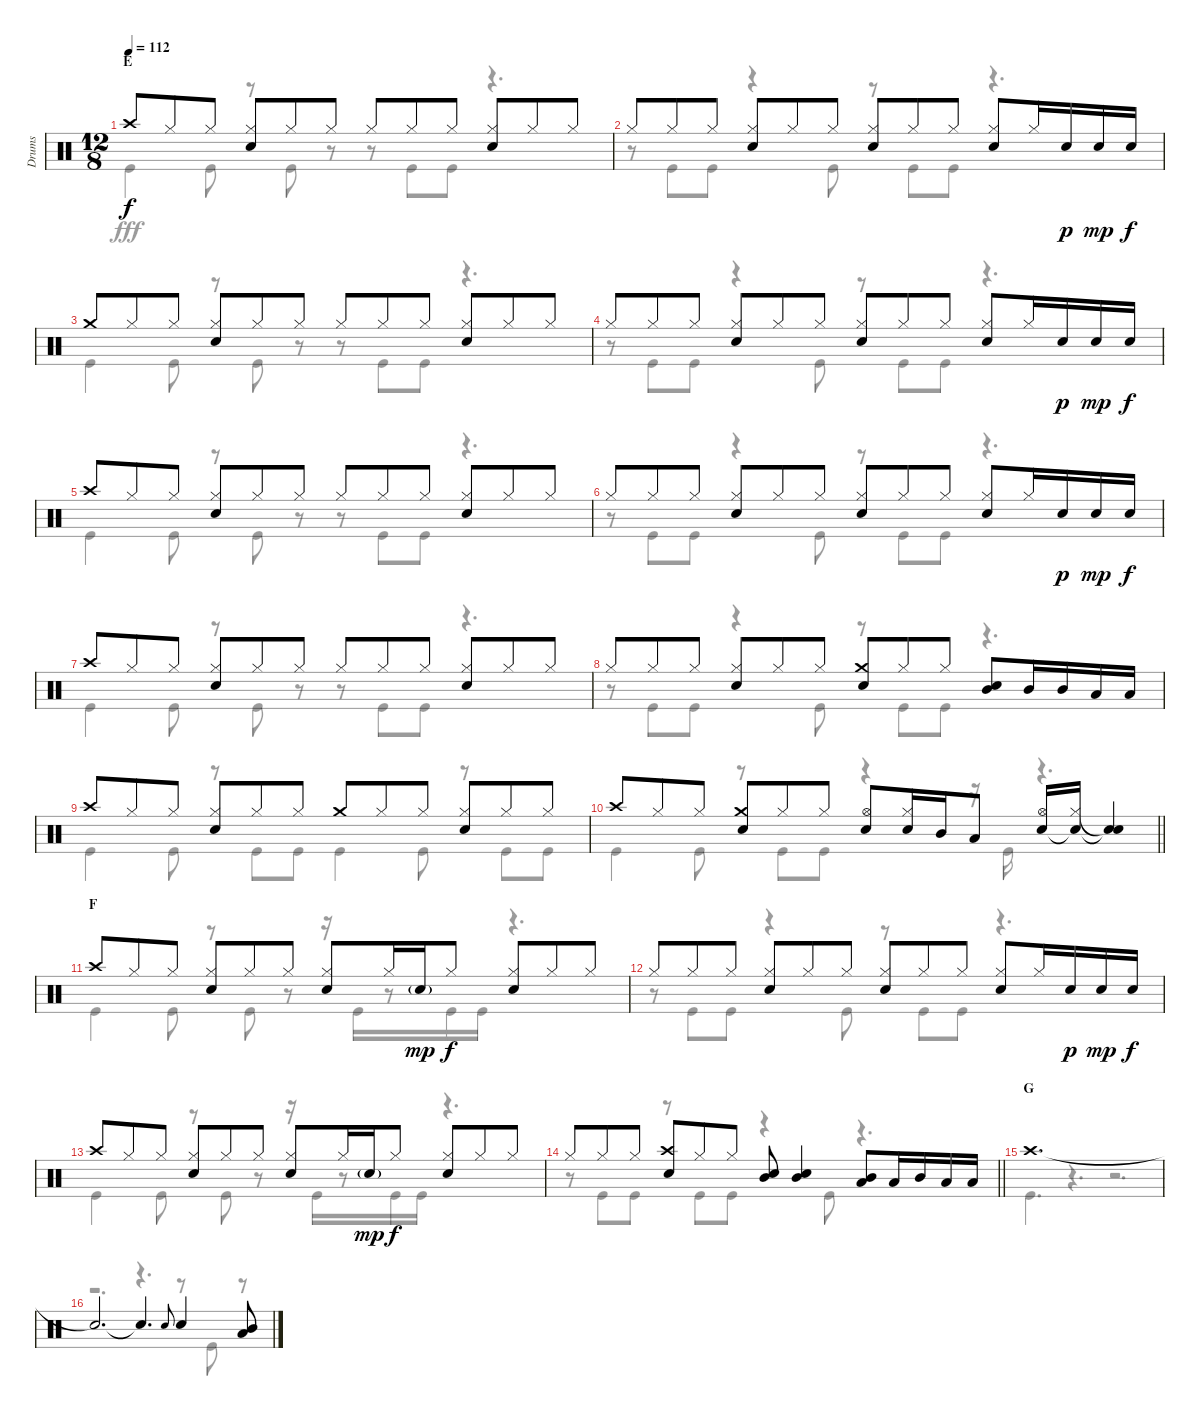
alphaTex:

\track ("Drums" "Drums") {instrument percussion}
\staff {score}
\articulation defaults
\voice
\ts (12 8)
\section ("" "E")
\tempo 112
\clef neutral
\ks c "Crash high (hit)".8{dy f} "Hi-Hat (closed)".8 "Hi-Hat (closed)".8
("Hi-Hat (closed)" "Snare (hit) 2").8 "Hi-Hat (closed)".8 "Hi-Hat (closed)".8 "Hi-Hat (closed)".8 "Hi-Hat (closed)".8 "Hi-Hat (closed)".8 ("Hi-Hat (closed)" "Snare (hit) 2").8 "Hi-Hat (closed)".8 "Hi-Hat (closed)".8 |
"Hi-Hat (closed)".8 "Hi-Hat (closed)".8 "Hi-Hat (closed)".8 ("Hi-Hat (closed)" "Snare (hit) 2").8 "Hi-Hat (closed)".8 "Hi-Hat (closed)".8 ("Hi-Hat (closed)" "Snare (hit) 2").8 "Hi-Hat (closed)".8 "Hi-Hat (closed)".8 ("Hi-Hat (closed)" "Snare (hit) 2").8 "Hi-Hat (closed)".16 "Snare (hit) 2".16{dy p} "Snare (hit) 2".16{dy mp} "Snare (hit) 2".16{dy f} |
"Crash medium (hit)".8 "Hi-Hat (closed)".8 "Hi-Hat (closed)".8 ("Hi-Hat (closed)" "Snare (hit) 2").8 "Hi-Hat (closed)".8 "Hi-Hat (closed)".8 "Hi-Hat (closed)".8 "Hi-Hat (closed)".8 "Hi-Hat (closed)".8 ("Hi-Hat (closed)" "Snare (hit) 2").8 "Hi-Hat (closed)".8 "Hi-Hat (closed)".8 |
"Hi-Hat (closed)".8 "Hi-Hat (closed)".8 "Hi-Hat (closed)".8 ("Hi-Hat (closed)" "Snare (hit) 2").8 "Hi-Hat (closed)".8 "Hi-Hat (closed)".8 ("Hi-Hat (closed)" "Snare (hit) 2").8 "Hi-Hat (closed)".8 "Hi-Hat (closed)".8 ("Hi-Hat (closed)" "Snare (hit) 2").8 "Hi-Hat (closed)".16 "Snare (hit) 2".16{dy p} "Snare (hit) 2".16{dy mp} "Snare (hit) 2".16{dy f} |
"Crash high (hit)".8 "Hi-Hat (closed)".8 "Hi-Hat (closed)".8 ("Hi-Hat (closed)" "Snare (hit) 2").8 "Hi-Hat (closed)".8 "Hi-Hat (closed)".8 "Hi-Hat (closed)".8 "Hi-Hat (closed)".8 "Hi-Hat (closed)".8 ("Hi-Hat (closed)" "Snare (hit) 2").8 "Hi-Hat (closed)".8 "Hi-Hat (closed)".8 |
"Hi-Hat (closed)".8 "Hi-Hat (closed)".8 "Hi-Hat (closed)".8 ("Hi-Hat (closed)" "Snare (hit) 2").8 "Hi-Hat (closed)".8 "Hi-Hat (closed)".8 ("Hi-Hat (closed)" "Snare (hit) 2").8 "Hi-Hat (closed)".8 "Hi-Hat (closed)".8 ("Hi-Hat (closed)" "Snare (hit) 2").8 "Hi-Hat (closed)".16 "Snare (hit) 2".16{dy p} "Snare (hit) 2".16{dy mp} "Snare (hit) 2".16{dy f} |
"Crash high (hit)".8 "Hi-Hat (closed)".8 "Hi-Hat (closed)".8 ("Hi-Hat (closed)" "Snare (hit) 2").8 "Hi-Hat (closed)".8 "Hi-Hat (closed)".8 "Hi-Hat (closed)".8 "Hi-Hat (closed)".8 "Hi-Hat (closed)".8 ("Hi-Hat (closed)" "Snare (hit) 2").8 "Hi-Hat (closed)".8 "Hi-Hat (closed)".8 |
"Hi-Hat (closed)".8 "Hi-Hat (closed)".8 "Hi-Hat (closed)".8 ("Hi-Hat (closed)" "Snare (hit) 2").8 "Hi-Hat (closed)".8 "Hi-Hat (closed)".8 ("Crash medium (hit)" "Snare (hit) 2").8 "Hi-Hat (closed)".8 "Hi-Hat (closed)".8 ("Mid Tom (hit)" "Snare (hit) 2").8 "Mid Tom (hit)".16 "Mid Tom (hit)".16 "Low Tom (hit)".16 "Low Tom (hit)".16 |
"Crash high (hit)".8 "Hi-Hat (closed)".8 "Hi-Hat (closed)".8 ("Hi-Hat (closed)" "Snare (hit) 2").8 "Hi-Hat (closed)".8 "Hi-Hat (closed)".8 "Crash medium (hit)".8 "Hi-Hat (closed)".8 "Hi-Hat (closed)".8 ("Hi-Hat (closed)" "Snare (hit) 2").8 "Hi-Hat (closed)".8 "Hi-Hat (closed)".8 |
\barLineRight lightlight "Crash high (hit)".8 "Hi-Hat (closed)".8 "Hi-Hat (closed)".8
("Crash medium (hit)" "Snare (hit) 2").8 "Hi-Hat (closed)".8 "Hi-Hat (closed)".8 ("Hi-Hat (open)" "Snare (hit) 2").8 ("Hi-Hat (closed)" "Snare (hit) 2").16 "Mid Tom (hit)".16 "Low Tom (hit)".8 ("Hi-Hat (open)" "Snare (hit) 2").16 ("Hi-Hat (closed)" "Snare (hit)"{t}).16 ("Snare (hit)"{t} "Snare (hit)"{t}).4 |
\section ("" "F")
"Crash high (hit)".8 "Hi-Hat (closed)".8 "Hi-Hat (closed)".8 ("Hi-Hat (closed)" "Snare (hit) 2").8 "Hi-Hat (closed)".8 "Hi-Hat (closed)".8 ("Hi-Hat (closed)" "Snare (hit) 2").8 "Hi-Hat (closed)".16 "Snare (hit) 2"{g}.16{dy mp} "Hi-Hat (closed)".8{dy f} ("Hi-Hat (closed)" "Snare (hit) 2").8 "Hi-Hat (closed)".8 "Hi-Hat (closed)".8 |
"Hi-Hat (closed)".8 "Hi-Hat (closed)".8 "Hi-Hat (closed)".8 ("Hi-Hat (closed)" "Snare (hit) 2").8 "Hi-Hat (closed)".8 "Hi-Hat (closed)".8 ("Hi-Hat (closed)" "Snare (hit) 2").8 "Hi-Hat (closed)".8 "Hi-Hat (closed)".8 ("Hi-Hat (closed)" "Snare (hit) 2").8 "Hi-Hat (closed)".16 "Snare (hit) 2".16{dy p} "Snare (hit) 2".16{dy mp} "Snare (hit) 2".16{dy f} |
"Crash high (hit)".8 "Hi-Hat (closed)".8 "Hi-Hat (closed)".8 ("Hi-Hat (closed)" "Snare (hit) 2").8 "Hi-Hat (closed)".8 "Hi-Hat (closed)".8 ("Hi-Hat (closed)" "Snare (hit) 2").8 "Hi-Hat (closed)".16 "Snare (hit) 2"{g}.16{dy mp} "Hi-Hat (closed)".8{dy f} ("Hi-Hat (closed)" "Snare (hit) 2").8 "Hi-Hat (closed)".8 "Hi-Hat (closed)".8 |
\barLineRight lightlight "Hi-Hat (closed)".8 "Hi-Hat (closed)".8 "Hi-Hat (closed)".8
("Crash high (hit)" "Snare (hit) 2").8 "Hi-Hat (closed)".8 "Hi-Hat (closed)".8 ("Mid Tom (hit)" "Snare (hit) 2").8 ("Mid Tom (hit)" "Snare (hit) 2").4 ("Mid Tom (hit)" "Low Tom (hit)").8 "Low Tom (hit)".16 "Mid Tom (hit)".16 "Low Tom (hit)".16 "Low Tom (hit)".16 |
\section ("" "G")
"Crash high (hit)".1{d} |
"Snare (hit)"{t}.2{d} "Snare (hit)"{t}.4{d} "Snare (hit) 2".8{gr onbeat} "Snare (hit) 2".4 ("Mid Tom (hit)" "Low Tom (hit)").8
\voice
\clef neutral
\ottava regular
\simile none
\ks c "Kick (hit)".4{dy fff} "Kick (hit)".8
r.8 "Kick (hit)".8 r.8 r.8 "Kick (hit)".8 "Kick (hit)".8 r.4{d} |
r.8 "Kick (hit)".8 "Kick (hit)".8 r.4 "Kick (hit)".8 r.8 "Kick (hit)".8 "Kick (hit)".8 r.4{d} |
"Kick (hit)".4 "Kick (hit)".8 r.8 "Kick (hit)".8 r.8 r.8 "Kick (hit)".8 "Kick (hit)".8 r.4{d} |
r.8 "Kick (hit)".8 "Kick (hit)".8 r.4 "Kick (hit)".8 r.8 "Kick (hit)".8 "Kick (hit)".8 r.4{d} |
"Kick (hit)".4 "Kick (hit)".8 r.8 "Kick (hit)".8 r.8 r.8 "Kick (hit)".8 "Kick (hit)".8 r.4{d} |
r.8 "Kick (hit)".8 "Kick (hit)".8 r.4 "Kick (hit)".8 r.8 "Kick (hit)".8 "Kick (hit)".8 r.4{d} |
"Kick (hit)".4 "Kick (hit)".8 r.8 "Kick (hit)".8 r.8 r.8 "Kick (hit)".8 "Kick (hit)".8 r.4{d} |
r.8 "Kick (hit)".8 "Kick (hit)".8 r.4 "Kick (hit)".8 r.8 "Kick (hit)".8 "Kick (hit)".8 r.4{d} |
"Kick (hit)".4 "Kick (hit)".8 r.8 "Kick (hit)".8 "Kick (hit)".8 "Kick (hit)".4 "Kick (hit)".8 r.8 "Kick (hit)".8 "Kick (hit)".8 |
\barLineRight lightlight "Kick (hit)".4 "Kick (hit)".8
r.8 "Kick (hit)".8 "Kick (hit)".8 r.4 r.16 "Kick (hit)".16 r.4{d} |
"Kick (hit)".4 "Kick (hit)".8 r.8 "Kick (hit)".8 r.8 r.16 "Kick (hit)".16 r.8 "Kick (hit)".16 "Kick (hit)".16 r.4{d} |
r.8 "Kick (hit)".8 "Kick (hit)".8 r.4 "Kick (hit)".8 r.8 "Kick (hit)".8 "Kick (hit)".8 r.4{d} |
"Kick (hit)".4 "Kick (hit)".8 r.8 "Kick (hit)".8 r.8 r.16 "Kick (hit)".16 r.8 "Kick (hit)".16 "Kick (hit)".16 r.4{d} |
\barLineRight lightlight
r.8 "Kick (hit)".8 "Kick (hit)".8 r.8 "Kick (hit)".8 "Kick (hit)".8 r.4 "Kick (hit)".8 r.4{d} |
"Kick (hit)".4{d} r.4{d} r.2{d} |
r.2{d} r.4{d} r.8 "Kick (hit)".8 r.8
